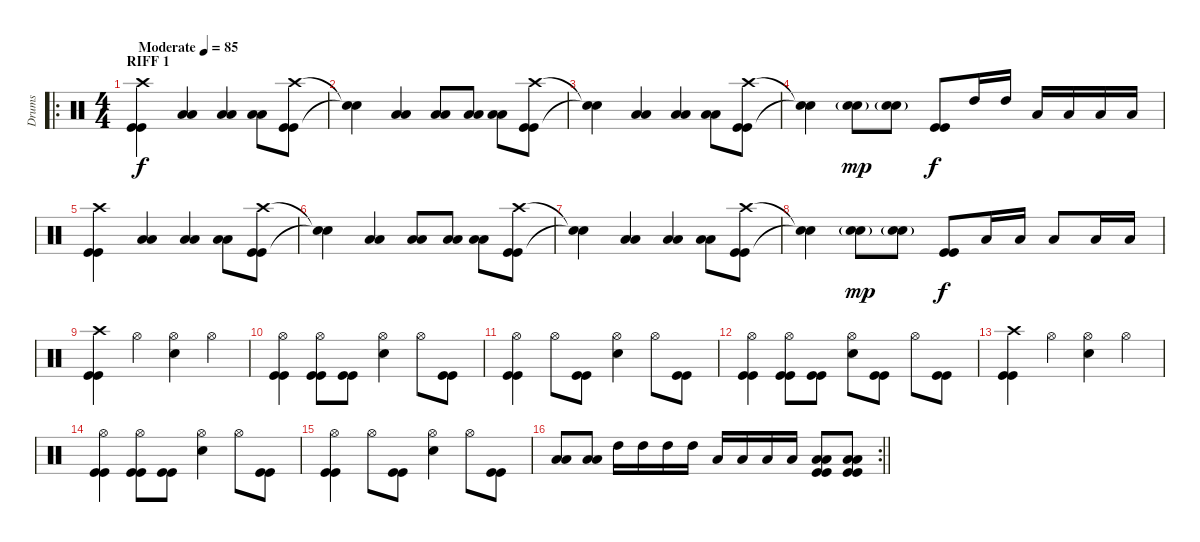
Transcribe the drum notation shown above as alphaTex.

\track ("Drums" "Drums") {instrument percussion}
\staff {score}
\articulation defaults
\ro
\ts (4 4)
\section ("" "RIFF 1")
\tempo (85 "Moderate")
\clef neutral
\ks c
("Crash high (hit)" "Kick (hit)" "Kick (hit)").4{dy f} ("Low Floor Tom (hit)" "Low Tom (hit)").4 ("Low Floor Tom (hit)" "Low Tom (hit)").4 ("Low Tom (hit)" "Low Floor Tom (hit)").8 ("Crash high (hit)" "Kick (hit)" "Kick (hit)").8 |
("Snare (hit)"{t} "Snare (hit)"{t}).4 ("Low Floor Tom (hit)" "Low Tom (hit)").4 ("Low Floor Tom (hit)" "Low Tom (hit)").8 ("Low Floor Tom (hit)" "Low Tom (hit)").8 ("Low Floor Tom (hit)" "Low Tom (hit)").8 ("Crash high (hit)" "Kick (hit)" "Kick (hit)").8 |
("Snare (hit)"{t} "Snare (hit)"{t}).4 ("Low Floor Tom (hit)" "Low Tom (hit)").4 ("Low Floor Tom (hit)" "Low Tom (hit)").4 ("Low Floor Tom (hit)" "Low Tom (hit)").8 ("Crash high (hit)" "Kick (hit)" "Kick (hit)").8 |
("Snare (hit)"{t} "Snare (hit)"{t}).4 ("Snare (hit) 2"{g} "Snare (hit) 2").8{dy mp} ("Snare (hit) 2"{g} "Snare (hit) 2").8 ("Kick (hit)" "Kick (hit)").8{dy f} "High Tom (hit)".16 "High Tom (hit)".16 "Low Tom (hit)".16 "Low Tom (hit)".16 "Low Floor Tom (hit)".16 "Low Floor Tom (hit)".16 |
("Crash high (hit)" "Kick (hit)" "Kick (hit)").4 ("Low Floor Tom (hit)" "Low Tom (hit)").4 ("Low Floor Tom (hit)" "Low Tom (hit)").4 ("Low Tom (hit)" "Low Floor Tom (hit)").8 ("Crash high (hit)" "Kick (hit)" "Kick (hit)").8 |
("Snare (hit)"{t} "Snare (hit)"{t}).4 ("Low Floor Tom (hit)" "Low Tom (hit)").4 ("Low Floor Tom (hit)" "Low Tom (hit)").8 ("Low Floor Tom (hit)" "Low Tom (hit)").8 ("Low Floor Tom (hit)" "Low Tom (hit)").8 ("Crash high (hit)" "Kick (hit)" "Kick (hit)").8 |
("Snare (hit)"{t} "Snare (hit)"{t}).4 ("Low Floor Tom (hit)" "Low Tom (hit)").4 ("Low Floor Tom (hit)" "Low Tom (hit)").4 ("Low Floor Tom (hit)" "Low Tom (hit)").8 ("Crash high (hit)" "Kick (hit)" "Kick (hit)").8 |
("Snare (hit)"{t} "Snare (hit)"{t}).4 ("Snare (hit) 2"{g} "Snare (hit) 2").8{dy mp} ("Snare (hit) 2"{g} "Snare (hit) 2").8 ("Kick (hit)" "Kick (hit)").8{dy f} "Low Tom (hit)".16 "Low Tom (hit)".16 "Low Tom (hit)".8 "Low Floor Tom (hit)".16 "Low Floor Tom (hit)".16 |
("Crash high (hit)" "Kick (hit)" "Kick (hit)").4 "Hi-Hat (open)".4 ("Hi-Hat (open)" "Snare (hit) 2").4 "Hi-Hat (open)".4 |
("Hi-Hat (open)" "Kick (hit)" "Kick (hit)").4 ("Hi-Hat (open)" "Kick (hit)" "Kick (hit)").8 ("Kick (hit)" "Kick (hit)").8 ("Hi-Hat (open)" "Snare (hit) 2").4 "Hi-Hat (open)".8 ("Kick (hit)" "Kick (hit)").8 |
("Hi-Hat (open)" "Kick (hit)" "Kick (hit)").4 "Hi-Hat (open)".8 ("Kick (hit)" "Kick (hit)").8 ("Hi-Hat (open)" "Snare (hit) 2").4 "Hi-Hat (open)".8 ("Kick (hit)" "Kick (hit)").8 |
("Hi-Hat (open)" "Kick (hit)" "Kick (hit)").4 ("Hi-Hat (open)" "Kick (hit)" "Kick (hit)").8 ("Kick (hit)" "Kick (hit)").8 ("Hi-Hat (open)" "Snare (hit) 2").8 ("Kick (hit)" "Kick (hit)").8 "Hi-Hat (open)".8 ("Kick (hit)" "Kick (hit)").8 |
("Crash high (hit)" "Kick (hit)" "Kick (hit)").4 "Hi-Hat (open)".4 ("Hi-Hat (open)" "Snare (hit) 2").4 "Hi-Hat (open)".4 |
("Hi-Hat (open)" "Kick (hit)" "Kick (hit)").4 ("Hi-Hat (open)" "Kick (hit)" "Kick (hit)").8 ("Kick (hit)" "Kick (hit)").8 ("Hi-Hat (open)" "Snare (hit) 2").4 "Hi-Hat (open)".8 ("Kick (hit)" "Kick (hit)").8 |
("Hi-Hat (open)" "Kick (hit)" "Kick (hit)").4 "Hi-Hat (open)".8 ("Kick (hit)" "Kick (hit)").8 ("Hi-Hat (open)" "Snare (hit) 2").4 "Hi-Hat (open)".8 ("Kick (hit)" "Kick (hit)").8 |
\rc 2
\barLineRight lightlight
("Low Floor Tom (hit)" "Low Tom (hit)").8 ("Low Floor Tom (hit)" "Low Tom (hit)").8 "High Tom (hit)".16 "High Tom (hit)".16 "High Tom (hit)".16 "High Tom (hit)".16 "Low Tom (hit)".16 "Low Tom (hit)".16 "Low Tom (hit)".16 "Low Tom (hit)".16 ("Low Tom (hit)" "Low Floor Tom (hit)" "Kick (hit)" "Kick (hit)").8 ("Low Tom (hit)" "Low Floor Tom (hit)" "Kick (hit)" "Kick (hit)").8
